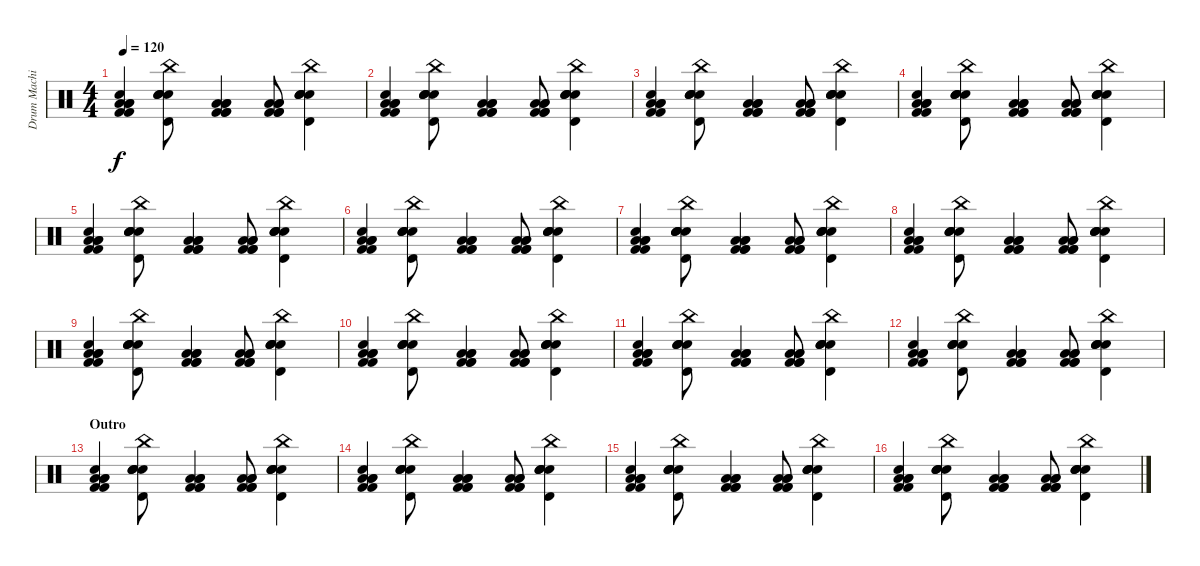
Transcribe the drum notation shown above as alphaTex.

\track ("Drum Machine" "Drum Machi") {instrument percussion}
\staff {score}
\articulation defaults
\ts (4 4)
\tempo 120
\clef neutral
\ks c
("Electric Snare (hit)" "Low Floor Tom (hit)" "Kick (hit) 2" "Low Floor Tom (hit)" "Kick (hit) 2" "Low Floor Tom (hit)").4{dy f} ("Timbale high (hit)" "China (hit)" "Electric Snare (hit)" "Electric Snare (hit)" "Electric Snare (hit)" "Electric Snare (hit)").8 ("Kick (hit) 2" "Low Floor Tom (hit)" "Kick (hit) 2" "Low Floor Tom (hit)" "Kick (hit) 2" "Low Floor Tom (hit)").4 ("Kick (hit) 2" "Low Floor Tom (hit)" "Kick (hit) 2" "Low Floor Tom (hit)" "Kick (hit) 2" "Low Floor Tom (hit)").8 ("Timbale high (hit)" "China (hit)" "Electric Snare (hit)" "Electric Snare (hit)" "Electric Snare (hit)" "Electric Snare (hit)").4 |
("Electric Snare (hit)" "Low Floor Tom (hit)" "Kick (hit) 2" "Low Floor Tom (hit)" "Kick (hit) 2" "Low Floor Tom (hit)").4 ("Timbale high (hit)" "China (hit)" "Electric Snare (hit)" "Electric Snare (hit)" "Electric Snare (hit)" "Electric Snare (hit)").8 ("Kick (hit) 2" "Low Floor Tom (hit)" "Kick (hit) 2" "Low Floor Tom (hit)" "Kick (hit) 2" "Low Floor Tom (hit)").4 ("Kick (hit) 2" "Low Floor Tom (hit)" "Kick (hit) 2" "Low Floor Tom (hit)" "Kick (hit) 2" "Low Floor Tom (hit)").8 ("Timbale high (hit)" "China (hit)" "Electric Snare (hit)" "Electric Snare (hit)" "Electric Snare (hit)" "Electric Snare (hit)").4 |
("Electric Snare (hit)" "Low Floor Tom (hit)" "Kick (hit) 2" "Low Floor Tom (hit)" "Kick (hit) 2" "Low Floor Tom (hit)").4 ("Timbale high (hit)" "China (hit)" "Electric Snare (hit)" "Electric Snare (hit)" "Electric Snare (hit)" "Electric Snare (hit)").8 ("Kick (hit) 2" "Low Floor Tom (hit)" "Kick (hit) 2" "Low Floor Tom (hit)" "Kick (hit) 2" "Low Floor Tom (hit)").4 ("Kick (hit) 2" "Low Floor Tom (hit)" "Kick (hit) 2" "Low Floor Tom (hit)" "Kick (hit) 2" "Low Floor Tom (hit)").8 ("Timbale high (hit)" "China (hit)" "Electric Snare (hit)" "Electric Snare (hit)" "Electric Snare (hit)" "Electric Snare (hit)").4 |
("Electric Snare (hit)" "Low Floor Tom (hit)" "Kick (hit) 2" "Low Floor Tom (hit)" "Kick (hit) 2" "Low Floor Tom (hit)").4 ("Timbale high (hit)" "China (hit)" "Electric Snare (hit)" "Electric Snare (hit)" "Electric Snare (hit)" "Electric Snare (hit)").8 ("Kick (hit) 2" "Low Floor Tom (hit)" "Kick (hit) 2" "Low Floor Tom (hit)" "Kick (hit) 2" "Low Floor Tom (hit)").4 ("Kick (hit) 2" "Low Floor Tom (hit)" "Kick (hit) 2" "Low Floor Tom (hit)" "Kick (hit) 2" "Low Floor Tom (hit)").8 ("Timbale high (hit)" "China (hit)" "Electric Snare (hit)" "Electric Snare (hit)" "Electric Snare (hit)" "Electric Snare (hit)").4 |
("Electric Snare (hit)" "Low Floor Tom (hit)" "Kick (hit) 2" "Low Floor Tom (hit)" "Kick (hit) 2" "Low Floor Tom (hit)").4 ("Timbale high (hit)" "China (hit)" "Electric Snare (hit)" "Electric Snare (hit)" "Electric Snare (hit)" "Electric Snare (hit)").8 ("Kick (hit) 2" "Low Floor Tom (hit)" "Kick (hit) 2" "Low Floor Tom (hit)" "Kick (hit) 2" "Low Floor Tom (hit)").4 ("Kick (hit) 2" "Low Floor Tom (hit)" "Kick (hit) 2" "Low Floor Tom (hit)" "Kick (hit) 2" "Low Floor Tom (hit)").8 ("Timbale high (hit)" "China (hit)" "Electric Snare (hit)" "Electric Snare (hit)" "Electric Snare (hit)" "Electric Snare (hit)").4 |
("Electric Snare (hit)" "Low Floor Tom (hit)" "Kick (hit) 2" "Low Floor Tom (hit)" "Kick (hit) 2" "Low Floor Tom (hit)").4 ("Timbale high (hit)" "China (hit)" "Electric Snare (hit)" "Electric Snare (hit)" "Electric Snare (hit)" "Electric Snare (hit)").8 ("Kick (hit) 2" "Low Floor Tom (hit)" "Kick (hit) 2" "Low Floor Tom (hit)" "Kick (hit) 2" "Low Floor Tom (hit)").4 ("Kick (hit) 2" "Low Floor Tom (hit)" "Kick (hit) 2" "Low Floor Tom (hit)" "Kick (hit) 2" "Low Floor Tom (hit)").8 ("Timbale high (hit)" "China (hit)" "Electric Snare (hit)" "Electric Snare (hit)" "Electric Snare (hit)" "Electric Snare (hit)").4 |
("Electric Snare (hit)" "Low Floor Tom (hit)" "Kick (hit) 2" "Low Floor Tom (hit)" "Kick (hit) 2" "Low Floor Tom (hit)").4 ("Timbale high (hit)" "China (hit)" "Electric Snare (hit)" "Electric Snare (hit)" "Electric Snare (hit)" "Electric Snare (hit)").8 ("Kick (hit) 2" "Low Floor Tom (hit)" "Kick (hit) 2" "Low Floor Tom (hit)" "Kick (hit) 2" "Low Floor Tom (hit)").4 ("Kick (hit) 2" "Low Floor Tom (hit)" "Kick (hit) 2" "Low Floor Tom (hit)" "Kick (hit) 2" "Low Floor Tom (hit)").8 ("Timbale high (hit)" "China (hit)" "Electric Snare (hit)" "Electric Snare (hit)" "Electric Snare (hit)" "Electric Snare (hit)").4 |
("Electric Snare (hit)" "Low Floor Tom (hit)" "Kick (hit) 2" "Low Floor Tom (hit)" "Kick (hit) 2" "Low Floor Tom (hit)").4 ("Timbale high (hit)" "China (hit)" "Electric Snare (hit)" "Electric Snare (hit)" "Electric Snare (hit)" "Electric Snare (hit)").8 ("Kick (hit) 2" "Low Floor Tom (hit)" "Kick (hit) 2" "Low Floor Tom (hit)" "Kick (hit) 2" "Low Floor Tom (hit)").4 ("Kick (hit) 2" "Low Floor Tom (hit)" "Kick (hit) 2" "Low Floor Tom (hit)" "Kick (hit) 2" "Low Floor Tom (hit)").8 ("Timbale high (hit)" "China (hit)" "Electric Snare (hit)" "Electric Snare (hit)" "Electric Snare (hit)" "Electric Snare (hit)").4 |
("Electric Snare (hit)" "Low Floor Tom (hit)" "Kick (hit) 2" "Low Floor Tom (hit)" "Kick (hit) 2" "Low Floor Tom (hit)").4 ("Timbale high (hit)" "China (hit)" "Electric Snare (hit)" "Electric Snare (hit)" "Electric Snare (hit)" "Electric Snare (hit)").8 ("Kick (hit) 2" "Low Floor Tom (hit)" "Kick (hit) 2" "Low Floor Tom (hit)" "Kick (hit) 2" "Low Floor Tom (hit)").4 ("Kick (hit) 2" "Low Floor Tom (hit)" "Kick (hit) 2" "Low Floor Tom (hit)" "Kick (hit) 2" "Low Floor Tom (hit)").8 ("Timbale high (hit)" "China (hit)" "Electric Snare (hit)" "Electric Snare (hit)" "Electric Snare (hit)" "Electric Snare (hit)").4 |
("Electric Snare (hit)" "Low Floor Tom (hit)" "Kick (hit) 2" "Low Floor Tom (hit)" "Kick (hit) 2" "Low Floor Tom (hit)").4 ("Timbale high (hit)" "China (hit)" "Electric Snare (hit)" "Electric Snare (hit)" "Electric Snare (hit)" "Electric Snare (hit)").8 ("Kick (hit) 2" "Low Floor Tom (hit)" "Kick (hit) 2" "Low Floor Tom (hit)" "Kick (hit) 2" "Low Floor Tom (hit)").4 ("Kick (hit) 2" "Low Floor Tom (hit)" "Kick (hit) 2" "Low Floor Tom (hit)" "Kick (hit) 2" "Low Floor Tom (hit)").8 ("Timbale high (hit)" "China (hit)" "Electric Snare (hit)" "Electric Snare (hit)" "Electric Snare (hit)" "Electric Snare (hit)").4 |
("Electric Snare (hit)" "Low Floor Tom (hit)" "Kick (hit) 2" "Low Floor Tom (hit)" "Kick (hit) 2" "Low Floor Tom (hit)").4 ("Timbale high (hit)" "China (hit)" "Electric Snare (hit)" "Electric Snare (hit)" "Electric Snare (hit)" "Electric Snare (hit)").8 ("Kick (hit) 2" "Low Floor Tom (hit)" "Kick (hit) 2" "Low Floor Tom (hit)" "Kick (hit) 2" "Low Floor Tom (hit)").4 ("Kick (hit) 2" "Low Floor Tom (hit)" "Kick (hit) 2" "Low Floor Tom (hit)" "Kick (hit) 2" "Low Floor Tom (hit)").8 ("Timbale high (hit)" "China (hit)" "Electric Snare (hit)" "Electric Snare (hit)" "Electric Snare (hit)" "Electric Snare (hit)").4 |
("Electric Snare (hit)" "Low Floor Tom (hit)" "Kick (hit) 2" "Low Floor Tom (hit)" "Kick (hit) 2" "Low Floor Tom (hit)").4 ("Timbale high (hit)" "China (hit)" "Electric Snare (hit)" "Electric Snare (hit)" "Electric Snare (hit)" "Electric Snare (hit)").8 ("Kick (hit) 2" "Low Floor Tom (hit)" "Kick (hit) 2" "Low Floor Tom (hit)" "Kick (hit) 2" "Low Floor Tom (hit)").4 ("Kick (hit) 2" "Low Floor Tom (hit)" "Kick (hit) 2" "Low Floor Tom (hit)" "Kick (hit) 2" "Low Floor Tom (hit)").8 ("Timbale high (hit)" "China (hit)" "Electric Snare (hit)" "Electric Snare (hit)" "Electric Snare (hit)" "Electric Snare (hit)").4 |
\section ("" "Outro")
("Electric Snare (hit)" "Low Floor Tom (hit)" "Kick (hit) 2" "Low Floor Tom (hit)" "Kick (hit) 2" "Low Floor Tom (hit)").4 ("Timbale high (hit)" "China (hit)" "Electric Snare (hit)" "Electric Snare (hit)" "Electric Snare (hit)" "Electric Snare (hit)").8 ("Kick (hit) 2" "Low Floor Tom (hit)" "Kick (hit) 2" "Low Floor Tom (hit)" "Kick (hit) 2" "Low Floor Tom (hit)").4 ("Kick (hit) 2" "Low Floor Tom (hit)" "Kick (hit) 2" "Low Floor Tom (hit)" "Kick (hit) 2" "Low Floor Tom (hit)").8 ("Timbale high (hit)" "China (hit)" "Electric Snare (hit)" "Electric Snare (hit)" "Electric Snare (hit)" "Electric Snare (hit)").4 |
("Electric Snare (hit)" "Low Floor Tom (hit)" "Kick (hit) 2" "Low Floor Tom (hit)" "Kick (hit) 2" "Low Floor Tom (hit)").4 ("Timbale high (hit)" "China (hit)" "Electric Snare (hit)" "Electric Snare (hit)" "Electric Snare (hit)" "Electric Snare (hit)").8 ("Kick (hit) 2" "Low Floor Tom (hit)" "Kick (hit) 2" "Low Floor Tom (hit)" "Kick (hit) 2" "Low Floor Tom (hit)").4 ("Kick (hit) 2" "Low Floor Tom (hit)" "Kick (hit) 2" "Low Floor Tom (hit)" "Kick (hit) 2" "Low Floor Tom (hit)").8 ("Timbale high (hit)" "China (hit)" "Electric Snare (hit)" "Electric Snare (hit)" "Electric Snare (hit)" "Electric Snare (hit)").4 |
("Electric Snare (hit)" "Low Floor Tom (hit)" "Kick (hit) 2" "Low Floor Tom (hit)" "Kick (hit) 2" "Low Floor Tom (hit)").4 ("Timbale high (hit)" "China (hit)" "Electric Snare (hit)" "Electric Snare (hit)" "Electric Snare (hit)" "Electric Snare (hit)").8 ("Kick (hit) 2" "Low Floor Tom (hit)" "Kick (hit) 2" "Low Floor Tom (hit)" "Kick (hit) 2" "Low Floor Tom (hit)").4 ("Kick (hit) 2" "Low Floor Tom (hit)" "Kick (hit) 2" "Low Floor Tom (hit)" "Kick (hit) 2" "Low Floor Tom (hit)").8 ("Timbale high (hit)" "China (hit)" "Electric Snare (hit)" "Electric Snare (hit)" "Electric Snare (hit)" "Electric Snare (hit)").4 |
("Electric Snare (hit)" "Low Floor Tom (hit)" "Kick (hit) 2" "Low Floor Tom (hit)" "Kick (hit) 2" "Low Floor Tom (hit)").4 ("Timbale high (hit)" "China (hit)" "Electric Snare (hit)" "Electric Snare (hit)" "Electric Snare (hit)" "Electric Snare (hit)").8 ("Kick (hit) 2" "Low Floor Tom (hit)" "Kick (hit) 2" "Low Floor Tom (hit)" "Kick (hit) 2" "Low Floor Tom (hit)").4 ("Kick (hit) 2" "Low Floor Tom (hit)" "Kick (hit) 2" "Low Floor Tom (hit)" "Kick (hit) 2" "Low Floor Tom (hit)").8 ("Timbale high (hit)" "China (hit)" "Electric Snare (hit)" "Electric Snare (hit)" "Electric Snare (hit)" "Electric Snare (hit)").4
